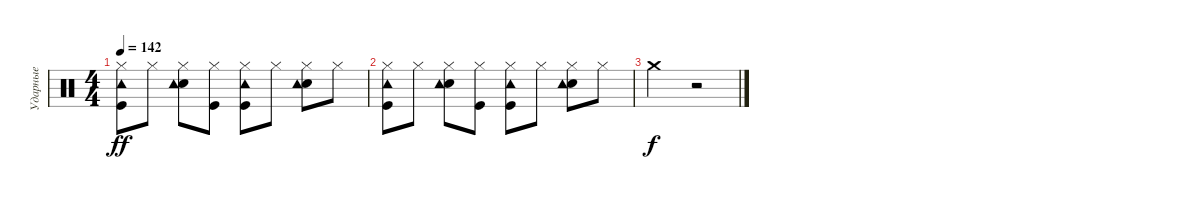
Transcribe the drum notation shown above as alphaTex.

\track ("Ударные" "Ударные") {instrument percussion}
\staff {score}
\articulation defaults
\ts (4 4)
\tempo 142
\clef neutral
\ks c
("Hi-Hat (closed)" "Kick (hit)" "Tambourine (hit)").8{dy ff} "Hi-Hat (closed)".8 ("Hi-Hat (closed)" "Electric Snare (hit)" "Tambourine (hit)").8 ("Hi-Hat (closed)" "Kick (hit)").8 ("Hi-Hat (closed)" "Tambourine (hit)" "Kick (hit)").8 "Hi-Hat (closed)".8 ("Hi-Hat (closed)" "Electric Snare (hit)" "Tambourine (hit)").8 "Hi-Hat (closed)".8 |
("Hi-Hat (closed)" "Kick (hit)" "Tambourine (hit)").8 "Hi-Hat (closed)".8 ("Hi-Hat (closed)" "Electric Snare (hit)" "Tambourine (hit)").8 ("Hi-Hat (closed)" "Kick (hit)").8 ("Hi-Hat (closed)" "Tambourine (hit)" "Kick (hit)").8 "Hi-Hat (closed)".8 ("Hi-Hat (closed)" "Electric Snare (hit)" "Tambourine (hit)").8 "Hi-Hat (closed)".8 |
"Crash medium (hit)".2{dy f} r.2
